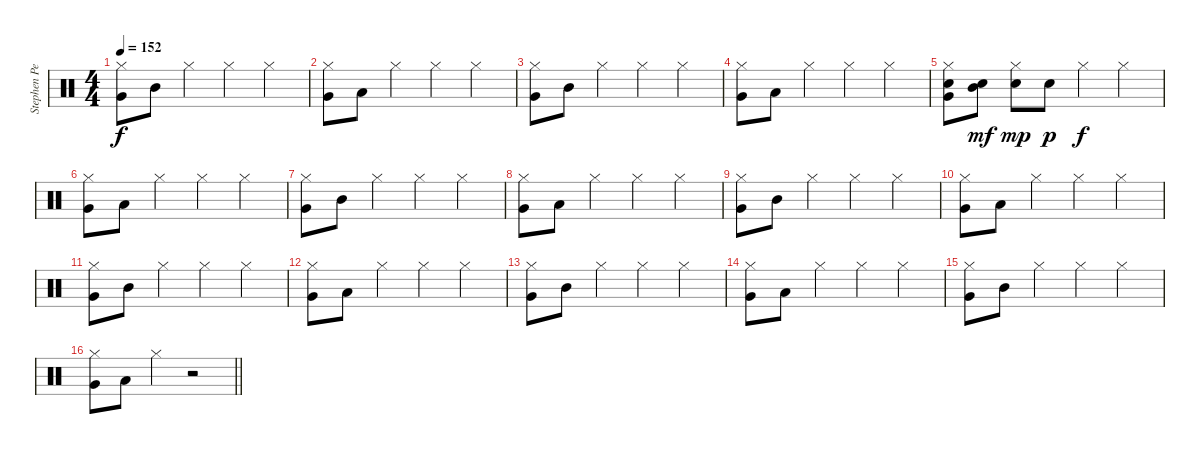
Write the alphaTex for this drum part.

\track ("Stephen Perkins (Drums)" "Stephen Pe") {instrument percussion}
\staff {score}
\articulation defaults
\ts (4 4)
\tempo 152
\clef neutral
\ks c
("Hi-Hat (closed)" "Very Low Tom (hit)").8{dy f} "Mid Tom (hit)".8 "Hi-Hat (closed)".4 "Hi-Hat (closed)".4 "Hi-Hat (closed)".4 |
("Hi-Hat (closed)" "Very Low Tom (hit)").8 "Low Tom (hit)".8 "Hi-Hat (closed)".4 "Hi-Hat (closed)".4 "Hi-Hat (closed)".4 |
("Hi-Hat (closed)" "Very Low Tom (hit)").8 "Mid Tom (hit)".8 "Hi-Hat (closed)".4 "Hi-Hat (closed)".4 "Hi-Hat (closed)".4 |
("Hi-Hat (closed)" "Very Low Tom (hit)").8 "Low Tom (hit)".8 "Hi-Hat (closed)".4 "Hi-Hat (closed)".4 "Hi-Hat (closed)".4 |
("Hi-Hat (closed)" "Electric Snare (hit)" "Very Low Tom (hit)").8 ("Electric Snare (hit)" "Mid Tom (hit)").8{dy mf} ("Hi-Hat (closed)" "Electric Snare (hit)").8{dy mp} "Electric Snare (hit)".8{dy p} "Hi-Hat (closed)".4{dy f} "Hi-Hat (closed)".4 |
("Hi-Hat (closed)" "Very Low Tom (hit)").8 "Low Tom (hit)".8 "Hi-Hat (closed)".4 "Hi-Hat (closed)".4 "Hi-Hat (closed)".4 |
("Hi-Hat (closed)" "Very Low Tom (hit)").8 "Mid Tom (hit)".8 "Hi-Hat (closed)".4 "Hi-Hat (closed)".4 "Hi-Hat (closed)".4 |
("Hi-Hat (closed)" "Very Low Tom (hit)").8 "Low Tom (hit)".8 "Hi-Hat (closed)".4 "Hi-Hat (closed)".4 "Hi-Hat (closed)".4 |
("Hi-Hat (closed)" "Very Low Tom (hit)").8{volume 6} "Mid Tom (hit)".8 "Hi-Hat (closed)".4 "Hi-Hat (closed)".4 "Hi-Hat (closed)".4 |
("Hi-Hat (closed)" "Very Low Tom (hit)").8 "Low Tom (hit)".8 "Hi-Hat (closed)".4 "Hi-Hat (closed)".4 "Hi-Hat (closed)".4 |
("Hi-Hat (closed)" "Very Low Tom (hit)").8 "Mid Tom (hit)".8 "Hi-Hat (closed)".4 "Hi-Hat (closed)".4 "Hi-Hat (closed)".4 |
("Hi-Hat (closed)" "Very Low Tom (hit)").8 "Low Tom (hit)".8 "Hi-Hat (closed)".4 "Hi-Hat (closed)".4 "Hi-Hat (closed)".4 |
("Hi-Hat (closed)" "Very Low Tom (hit)").8{volume 0} "Mid Tom (hit)".8 "Hi-Hat (closed)".4 "Hi-Hat (closed)".4 "Hi-Hat (closed)".4 |
("Hi-Hat (closed)" "Very Low Tom (hit)").8 "Low Tom (hit)".8 "Hi-Hat (closed)".4 "Hi-Hat (closed)".4 "Hi-Hat (closed)".4 |
("Hi-Hat (closed)" "Very Low Tom (hit)").8 "Mid Tom (hit)".8 "Hi-Hat (closed)".4 "Hi-Hat (closed)".4 "Hi-Hat (closed)".4 |
\barLineRight lightlight
("Hi-Hat (closed)" "Very Low Tom (hit)").8 "Low Tom (hit)".8 "Hi-Hat (closed)".4 r.2
